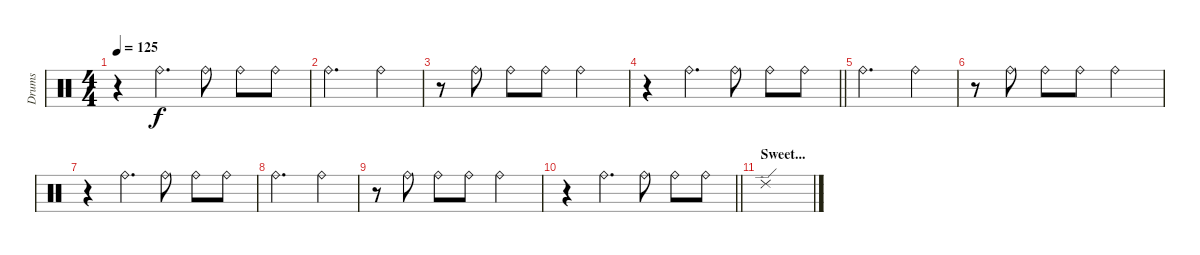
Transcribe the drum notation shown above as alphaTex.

\track ("Drums" "Drums") {instrument percussion}
\staff {score}
\articulation defaults
\ts (4 4)
\tempo 125
\clef neutral
\ks c
r.4{dy f} "Ride (bell)".4{d} "Ride (bell)".8 "Ride (bell)".8 "Ride (bell)".8 |
"Ride (bell)".2{d} "Ride (bell)".4 |
r.8 "Ride (bell)".8 "Ride (bell)".8 "Ride (bell)".8 "Ride (bell)".2 |
\barLineRight lightlight
r.4 "Ride (bell)".4{d} "Ride (bell)".8 "Ride (bell)".8 "Ride (bell)".8 |
"Ride (bell)".2{d} "Ride (bell)".4 |
r.8 "Ride (bell)".8 "Ride (bell)".8 "Ride (bell)".8 "Ride (bell)".2 |
r.4 "Ride (bell)".4{d} "Ride (bell)".8 "Ride (bell)".8 "Ride (bell)".8 |
"Ride (bell)".2{d} "Ride (bell)".4 |
r.8 "Ride (bell)".8 "Ride (bell)".8 "Ride (bell)".8 "Ride (bell)".2 |
\barLineRight lightlight
r.4 "Ride (bell)".4{d} "Ride (bell)".8 "Ride (bell)".8 "Ride (bell)".8 |
\section ("" "Sweet...")
"Ride (edge) 2".1
